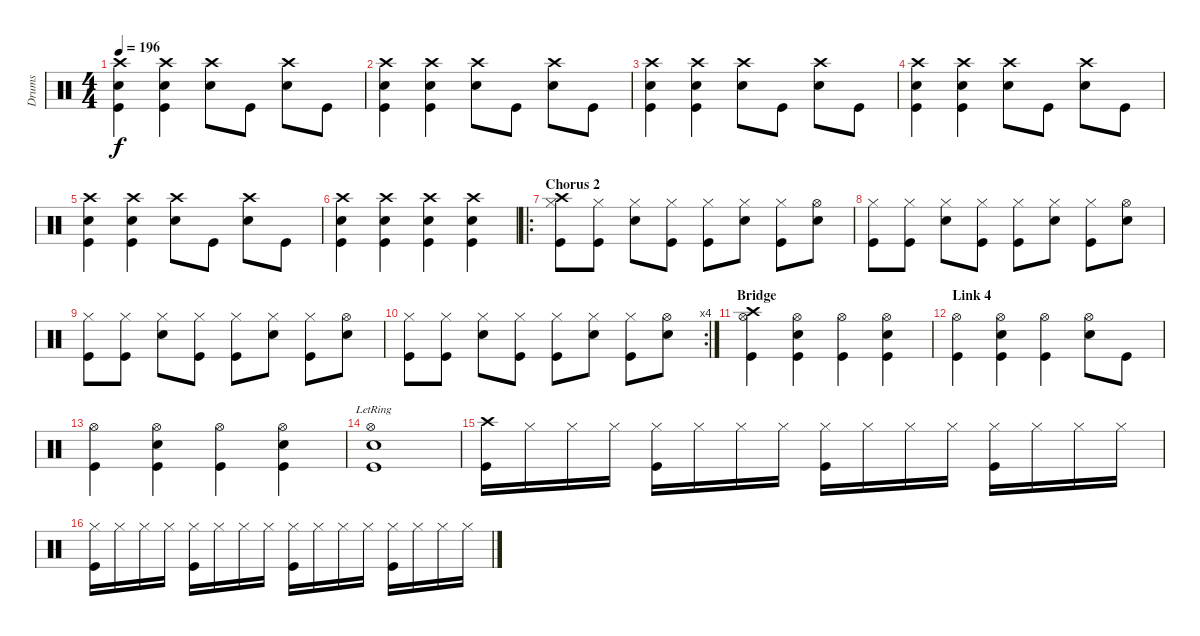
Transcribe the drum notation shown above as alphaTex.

\track ("Drums" "Drums") {instrument percussion}
\staff {score}
\articulation defaults
\ts (4 4)
\tempo 196
\clef neutral
\ks c
("Crash high (hit)" "Kick (hit)" "Electric Snare (hit)").4{dy f} ("Crash high (hit)" "Kick (hit)" "Electric Snare (hit)").4 ("Crash high (hit)" "Electric Snare (hit)").8 "Kick (hit)".8 ("Crash high (hit)" "Electric Snare (hit)").8 "Kick (hit)".8 |
("Crash high (hit)" "Kick (hit)" "Electric Snare (hit)").4 ("Crash high (hit)" "Kick (hit)" "Electric Snare (hit)").4 ("Crash high (hit)" "Electric Snare (hit)").8 "Kick (hit)".8 ("Crash high (hit)" "Electric Snare (hit)").8 "Kick (hit)".8 |
("Crash high (hit)" "Kick (hit)" "Electric Snare (hit)").4 ("Crash high (hit)" "Kick (hit)" "Electric Snare (hit)").4 ("Crash high (hit)" "Electric Snare (hit)").8 "Kick (hit)".8 ("Crash high (hit)" "Electric Snare (hit)").8 "Kick (hit)".8 |
("Crash high (hit)" "Kick (hit)" "Electric Snare (hit)").4 ("Crash high (hit)" "Kick (hit)" "Electric Snare (hit)").4 ("Crash high (hit)" "Electric Snare (hit)").8 "Kick (hit)".8 ("Crash high (hit)" "Electric Snare (hit)").8 "Kick (hit)".8 |
("Crash high (hit)" "Kick (hit)" "Electric Snare (hit)").4 ("Crash high (hit)" "Kick (hit)" "Electric Snare (hit)").4 ("Crash high (hit)" "Electric Snare (hit)").8 "Kick (hit)".8 ("Crash high (hit)" "Electric Snare (hit)").8 "Kick (hit)".8 |
("Crash high (hit)" "Electric Snare (hit)" "Kick (hit)").4 ("Crash high (hit)" "Electric Snare (hit)" "Kick (hit)").4 ("Crash high (hit)" "Electric Snare (hit)" "Kick (hit)").4 ("Crash high (hit)" "Electric Snare (hit)" "Kick (hit)").4 |
\ro
\section ("" "Chorus 2")
("Hi-Hat (closed)" "Kick (hit)" "Crash high (hit)").8 ("Hi-Hat (closed)" "Kick (hit)").8 ("Hi-Hat (closed)" "Electric Snare (hit)").8 ("Hi-Hat (closed)" "Kick (hit)").8 ("Hi-Hat (closed)" "Kick (hit)").8 ("Hi-Hat (closed)" "Electric Snare (hit)").8 ("Hi-Hat (closed)" "Kick (hit)").8 ("Hi-Hat (open)" "Electric Snare (hit)").8 |
("Hi-Hat (closed)" "Kick (hit)").8 ("Hi-Hat (closed)" "Kick (hit)").8 ("Hi-Hat (closed)" "Electric Snare (hit)").8 ("Hi-Hat (closed)" "Kick (hit)").8 ("Hi-Hat (closed)" "Kick (hit)").8 ("Hi-Hat (closed)" "Electric Snare (hit)").8 ("Hi-Hat (closed)" "Kick (hit)").8 ("Hi-Hat (open)" "Electric Snare (hit)").8 |
("Hi-Hat (closed)" "Kick (hit)").8 ("Hi-Hat (closed)" "Kick (hit)").8 ("Hi-Hat (closed)" "Electric Snare (hit)").8 ("Hi-Hat (closed)" "Kick (hit)").8 ("Hi-Hat (closed)" "Kick (hit)").8 ("Hi-Hat (closed)" "Electric Snare (hit)").8 ("Hi-Hat (closed)" "Kick (hit)").8 ("Hi-Hat (open)" "Electric Snare (hit)").8 |
\rc 4
("Hi-Hat (closed)" "Kick (hit)").8 ("Hi-Hat (closed)" "Kick (hit)").8 ("Hi-Hat (closed)" "Electric Snare (hit)").8 ("Hi-Hat (closed)" "Kick (hit)").8 ("Hi-Hat (closed)" "Kick (hit)").8 ("Hi-Hat (closed)" "Electric Snare (hit)").8 ("Hi-Hat (closed)" "Kick (hit)").8 ("Hi-Hat (open)" "Electric Snare (hit)").8 |
\section ("" "Bridge")
("Hi-Hat (open)" "Kick (hit)" "Crash high (hit)").4 ("Hi-Hat (open)" "Kick (hit)" "Electric Snare (hit)").4 ("Hi-Hat (open)" "Kick (hit)").4 ("Hi-Hat (open)" "Kick (hit)" "Electric Snare (hit)").4 |
\section ("" "Link 4")
("Hi-Hat (open)" "Kick (hit)").4 ("Hi-Hat (open)" "Kick (hit)" "Electric Snare (hit)").4 ("Hi-Hat (open)" "Kick (hit)").4 ("Hi-Hat (open)" "Electric Snare (hit)").8 "Kick (hit)".8 |
("Hi-Hat (open)" "Kick (hit)").4 ("Hi-Hat (open)" "Kick (hit)" "Electric Snare (hit)").4 ("Hi-Hat (open)" "Kick (hit)").4 ("Hi-Hat (open)" "Kick (hit)" "Electric Snare (hit)").4 |
("Hi-Hat (open)"{lr} "Kick (hit)"{lr} "Electric Snare (hit)"{lr}).1 |
("Crash high (hit)" "Kick (hit)").16 "Hi-Hat (closed)".16 "Hi-Hat (closed)".16 "Hi-Hat (closed)".16 ("Hi-Hat (closed)" "Kick (hit)").16 "Hi-Hat (closed)".16 "Hi-Hat (closed)".16 "Hi-Hat (closed)".16 ("Hi-Hat (closed)" "Kick (hit)").16 "Hi-Hat (closed)".16 "Hi-Hat (closed)".16 "Hi-Hat (closed)".16 ("Hi-Hat (closed)" "Kick (hit)").16 "Hi-Hat (closed)".16 "Hi-Hat (closed)".16 "Hi-Hat (closed)".16 |
("Hi-Hat (closed)" "Kick (hit)").16 "Hi-Hat (closed)".16 "Hi-Hat (closed)".16 "Hi-Hat (closed)".16 ("Hi-Hat (closed)" "Kick (hit)").16 "Hi-Hat (closed)".16 "Hi-Hat (closed)".16 "Hi-Hat (closed)".16 ("Hi-Hat (closed)" "Kick (hit)").16 "Hi-Hat (closed)".16 "Hi-Hat (closed)".16 "Hi-Hat (closed)".16 ("Hi-Hat (closed)" "Kick (hit)").16 "Hi-Hat (closed)".16 "Hi-Hat (closed)".16 "Hi-Hat (closed)".16
